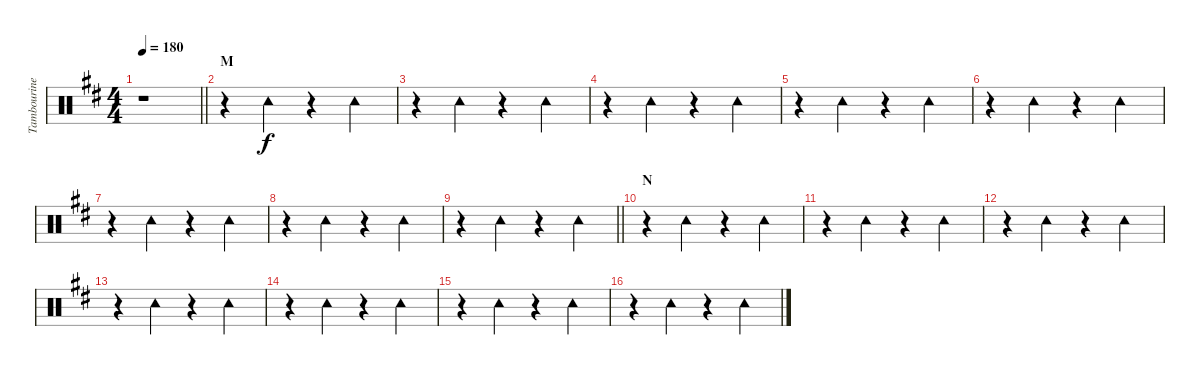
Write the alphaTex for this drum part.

\track ("Tambourine" "Tambourine") {instrument percussion}
\staff {score}
\articulation defaults
\ts (4 4)
\tempo 180
\clef neutral
\barLineRight lightlight
\ks d
r.1{dy f} |
\section ("" "M")
r.4 "Tambourine (hit)".4 r.4 "Tambourine (hit)".4 |
r.4 "Tambourine (hit)".4 r.4 "Tambourine (hit)".4 |
r.4 "Tambourine (hit)".4 r.4 "Tambourine (hit)".4 |
r.4 "Tambourine (hit)".4 r.4 "Tambourine (hit)".4 |
r.4 "Tambourine (hit)".4 r.4 "Tambourine (hit)".4 |
r.4 "Tambourine (hit)".4 r.4 "Tambourine (hit)".4 |
r.4 "Tambourine (hit)".4 r.4 "Tambourine (hit)".4 |
\barLineRight lightlight
r.4 "Tambourine (hit)".4 r.4 "Tambourine (hit)".4 |
\section ("" "N")
r.4 "Tambourine (hit)".4 r.4 "Tambourine (hit)".4 |
r.4 "Tambourine (hit)".4 r.4 "Tambourine (hit)".4 |
r.4 "Tambourine (hit)".4 r.4 "Tambourine (hit)".4 |
r.4 "Tambourine (hit)".4 r.4 "Tambourine (hit)".4 |
r.4 "Tambourine (hit)".4 r.4 "Tambourine (hit)".4 |
r.4 "Tambourine (hit)".4 r.4 "Tambourine (hit)".4 |
r.4 "Tambourine (hit)".4 r.4 "Tambourine (hit)".4
